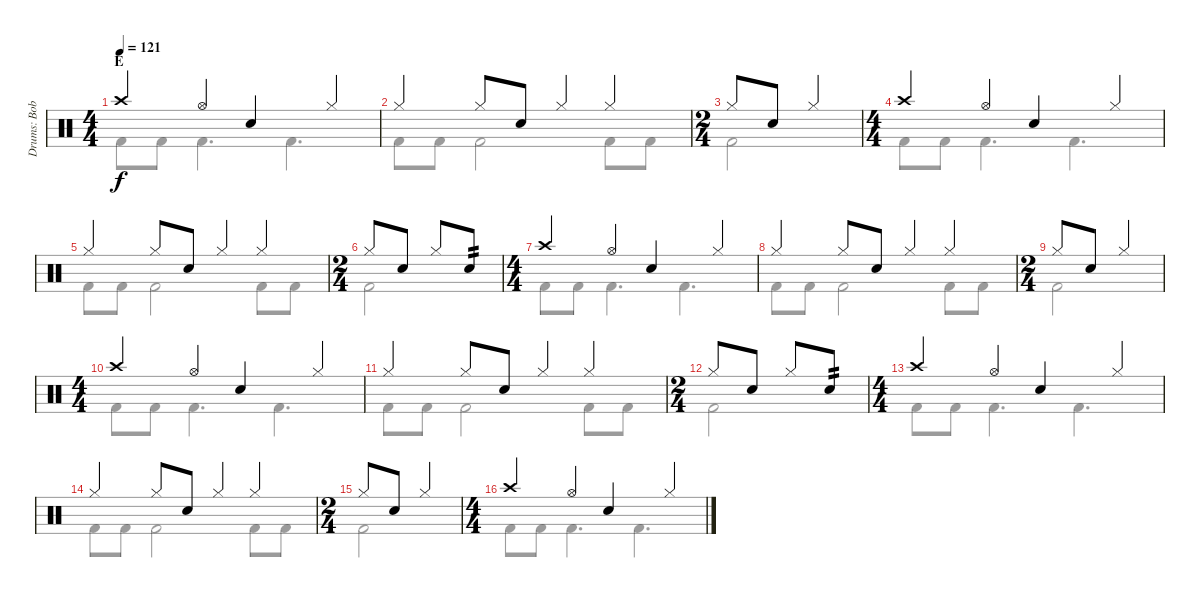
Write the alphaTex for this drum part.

\track ("Drums: Bobby" "Drums: Bob") {instrument percussion}
\staff {score}
\articulation defaults
\voice
\ts (4 4)
\section ("" "E")
\tempo 121
\clef neutral
\ks c "Crash high (hit)".4{dy f} "Hi-Hat (open)".4 "Snare (hit) 2".4 "Hi-Hat (closed)".4
|
"Hi-Hat (closed)".4 "Hi-Hat (closed)".8 "Snare (hit) 2".8 "Hi-Hat (closed)".4 "Hi-Hat (closed)".4 |
\ts (2 4)
"Hi-Hat (closed)".8 "Snare (hit) 2".8 "Hi-Hat (closed)".4 |
\ts (4 4)
"Crash high (hit)".4 "Hi-Hat (open)".4 "Snare (hit) 2".4 "Hi-Hat (closed)".4 |
"Hi-Hat (closed)".4 "Hi-Hat (closed)".8 "Snare (hit) 2".8 "Hi-Hat (closed)".4 "Hi-Hat (closed)".4 |
\ts (2 4)
"Hi-Hat (closed)".8 "Snare (hit) 2".8 "Hi-Hat (closed)".8 "Snare (hit) 2".8{tp 2} |
\ts (4 4)
"Crash high (hit)".4 "Hi-Hat (open)".4 "Snare (hit) 2".4 "Hi-Hat (closed)".4 |
"Hi-Hat (closed)".4 "Hi-Hat (closed)".8 "Snare (hit) 2".8 "Hi-Hat (closed)".4 "Hi-Hat (closed)".4 |
\ts (2 4)
"Hi-Hat (closed)".8 "Snare (hit) 2".8 "Hi-Hat (closed)".4 |
\ts (4 4)
"Crash high (hit)".4 "Hi-Hat (open)".4 "Snare (hit) 2".4 "Hi-Hat (closed)".4 |
"Hi-Hat (closed)".4 "Hi-Hat (closed)".8 "Snare (hit) 2".8 "Hi-Hat (closed)".4 "Hi-Hat (closed)".4 |
\ts (2 4)
"Hi-Hat (closed)".8 "Snare (hit) 2".8 "Hi-Hat (closed)".8 "Snare (hit) 2".8{tp 2} |
\ts (4 4)
"Crash high (hit)".4 "Hi-Hat (open)".4 "Snare (hit) 2".4 "Hi-Hat (closed)".4 |
"Hi-Hat (closed)".4 "Hi-Hat (closed)".8 "Snare (hit) 2".8 "Hi-Hat (closed)".4 "Hi-Hat (closed)".4 |
\ts (2 4)
"Hi-Hat (closed)".8 "Snare (hit) 2".8 "Hi-Hat (closed)".4 |
\ts (4 4)
"Crash high (hit)".4 "Hi-Hat (open)".4 "Snare (hit) 2".4 "Hi-Hat (closed)".4
\voice
\clef neutral
\ottava regular
\simile none
\ks c "Kick (hit) 2".8{dy f} "Kick (hit) 2".8 "Kick (hit) 2".4{d} "Kick (hit) 2".4{d}
|
"Kick (hit) 2".8 "Kick (hit) 2".8 "Kick (hit) 2".2 "Kick (hit) 2".8 "Kick (hit) 2".8 |
"Kick (hit) 2".2 |
"Kick (hit) 2".8 "Kick (hit) 2".8 "Kick (hit) 2".4{d} "Kick (hit) 2".4{d} |
"Kick (hit) 2".8 "Kick (hit) 2".8 "Kick (hit) 2".2 "Kick (hit) 2".8 "Kick (hit) 2".8 |
"Kick (hit) 2".2 |
"Kick (hit) 2".8 "Kick (hit) 2".8 "Kick (hit) 2".4{d} "Kick (hit) 2".4{d} |
"Kick (hit) 2".8 "Kick (hit) 2".8 "Kick (hit) 2".2 "Kick (hit) 2".8 "Kick (hit) 2".8 |
"Kick (hit) 2".2 |
"Kick (hit) 2".8 "Kick (hit) 2".8 "Kick (hit) 2".4{d} "Kick (hit) 2".4{d} |
"Kick (hit) 2".8 "Kick (hit) 2".8 "Kick (hit) 2".2 "Kick (hit) 2".8 "Kick (hit) 2".8 |
"Kick (hit) 2".2 |
"Kick (hit) 2".8 "Kick (hit) 2".8 "Kick (hit) 2".4{d} "Kick (hit) 2".4{d} |
"Kick (hit) 2".8 "Kick (hit) 2".8 "Kick (hit) 2".2 "Kick (hit) 2".8 "Kick (hit) 2".8 |
"Kick (hit) 2".2 |
"Kick (hit) 2".8 "Kick (hit) 2".8 "Kick (hit) 2".4{d} "Kick (hit) 2".4{d}
